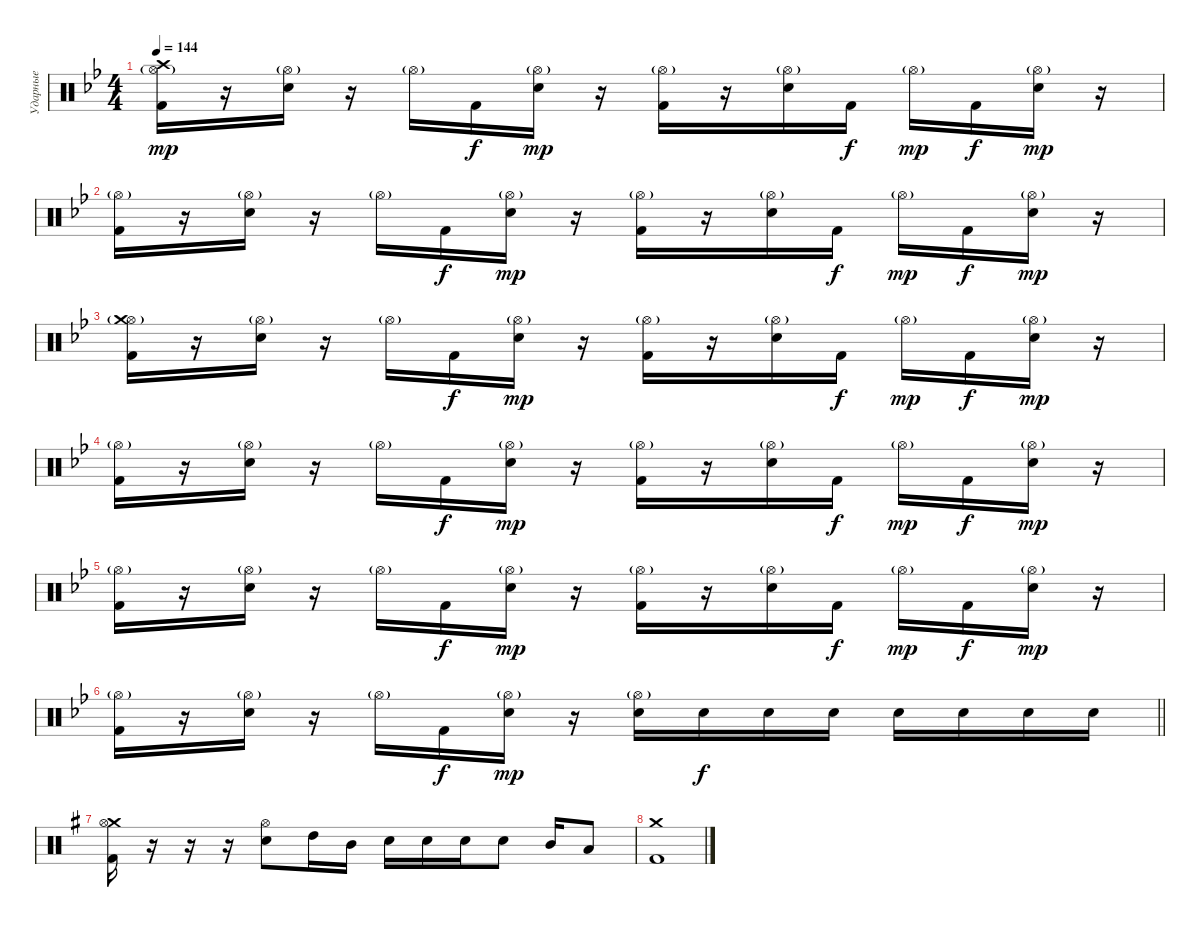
\track ("Ударные" "Ударные") {instrument percussion}
\staff {score}
\articulation defaults
\ts (4 4)
\tempo 144
\clef neutral
\ks gminor
("Hi-Hat (open)"{g} "Kick (hit) 2" "Crash high (hit)").16{dy mp} r.16 ("Hi-Hat (open)"{g} "Electric Snare (hit)").16 r.16 "Hi-Hat (open)"{g}.16 "Kick (hit) 2".16{dy f} ("Hi-Hat (open)"{g} "Electric Snare (hit)").16{dy mp} r.16 ("Hi-Hat (open)"{g} "Kick (hit) 2").16 r.16 ("Hi-Hat (open)"{g} "Electric Snare (hit)").16 "Kick (hit) 2".16{dy f} "Hi-Hat (open)"{g}.16{dy mp} "Kick (hit) 2".16{dy f} ("Hi-Hat (open)"{g} "Electric Snare (hit)").16{dy mp} r.16 |
("Hi-Hat (open)"{g} "Kick (hit) 2").16 r.16 ("Hi-Hat (open)"{g} "Electric Snare (hit)").16 r.16 "Hi-Hat (open)"{g}.16 "Kick (hit) 2".16{dy f} ("Hi-Hat (open)"{g} "Electric Snare (hit)").16{dy mp} r.16 ("Hi-Hat (open)"{g} "Kick (hit) 2").16 r.16 ("Hi-Hat (open)"{g} "Electric Snare (hit)").16 "Kick (hit) 2".16{dy f} "Hi-Hat (open)"{g}.16{dy mp} "Kick (hit) 2".16{dy f} ("Hi-Hat (open)"{g} "Electric Snare (hit)").16{dy mp} r.16 |
("Hi-Hat (open)"{g} "Crash medium (hit)" "Kick (hit) 2").16 r.16 ("Hi-Hat (open)"{g} "Electric Snare (hit)").16 r.16 "Hi-Hat (open)"{g}.16 "Kick (hit) 2".16{dy f} ("Hi-Hat (open)"{g} "Electric Snare (hit)").16{dy mp} r.16 ("Hi-Hat (open)"{g} "Kick (hit) 2").16 r.16 ("Hi-Hat (open)"{g} "Electric Snare (hit)").16 "Kick (hit) 2".16{dy f} "Hi-Hat (open)"{g}.16{dy mp} "Kick (hit) 2".16{dy f} ("Hi-Hat (open)"{g} "Electric Snare (hit)").16{dy mp} r.16 |
("Hi-Hat (open)"{g} "Kick (hit) 2").16 r.16 ("Hi-Hat (open)"{g} "Electric Snare (hit)").16 r.16 "Hi-Hat (open)"{g}.16 "Kick (hit) 2".16{dy f} ("Hi-Hat (open)"{g} "Electric Snare (hit)").16{dy mp} r.16 ("Hi-Hat (open)"{g} "Kick (hit) 2").16 r.16 ("Hi-Hat (open)"{g} "Electric Snare (hit)").16 "Kick (hit) 2".16{dy f} "Hi-Hat (open)"{g}.16{dy mp} "Kick (hit) 2".16{dy f} ("Hi-Hat (open)"{g} "Electric Snare (hit)").16{dy mp} r.16 |
("Hi-Hat (open)"{g} "Kick (hit) 2").16 r.16 ("Hi-Hat (open)"{g} "Electric Snare (hit)").16 r.16 "Hi-Hat (open)"{g}.16 "Kick (hit) 2".16{dy f} ("Hi-Hat (open)"{g} "Electric Snare (hit)").16{dy mp} r.16 ("Hi-Hat (open)"{g} "Kick (hit) 2").16 r.16 ("Hi-Hat (open)"{g} "Electric Snare (hit)").16 "Kick (hit) 2".16{dy f} "Hi-Hat (open)"{g}.16{dy mp} "Kick (hit) 2".16{dy f} ("Hi-Hat (open)"{g} "Electric Snare (hit)").16{dy mp} r.16 |
\barLineRight lightlight
("Hi-Hat (open)"{g} "Kick (hit) 2").16 r.16 ("Hi-Hat (open)"{g} "Electric Snare (hit)").16 r.16 "Hi-Hat (open)"{g}.16 "Kick (hit) 2".16{dy f} ("Hi-Hat (open)"{g} "Electric Snare (hit)").16{dy mp} r.16 ("Hi-Hat (open)"{g} "Electric Snare (hit)").16 "Electric Snare (hit)".16{dy f} "Electric Snare (hit)".16 "Electric Snare (hit)".16 "Electric Snare (hit)".16 "Electric Snare (hit)".16 "Electric Snare (hit)".16 "Electric Snare (hit)".16 |
\section ("" "")
\ks eminor
("Crash medium (hit)" "Kick (hit) 2" "Hi-Hat (open)").16 r.16 r.16 r.16 ("Electric Snare (hit)" "Hi-Hat (open)").8 "High Tom (hit)".16 "Mid Tom (hit)".16 "Electric Snare (hit)".16 "Electric Snare (hit)".16 "Electric Snare (hit)".16 "Electric Snare (hit)".8 "Mid Tom (hit)".16 "Low Tom (hit)".8 |
("Crash medium (hit)" "Kick (hit) 2").1
